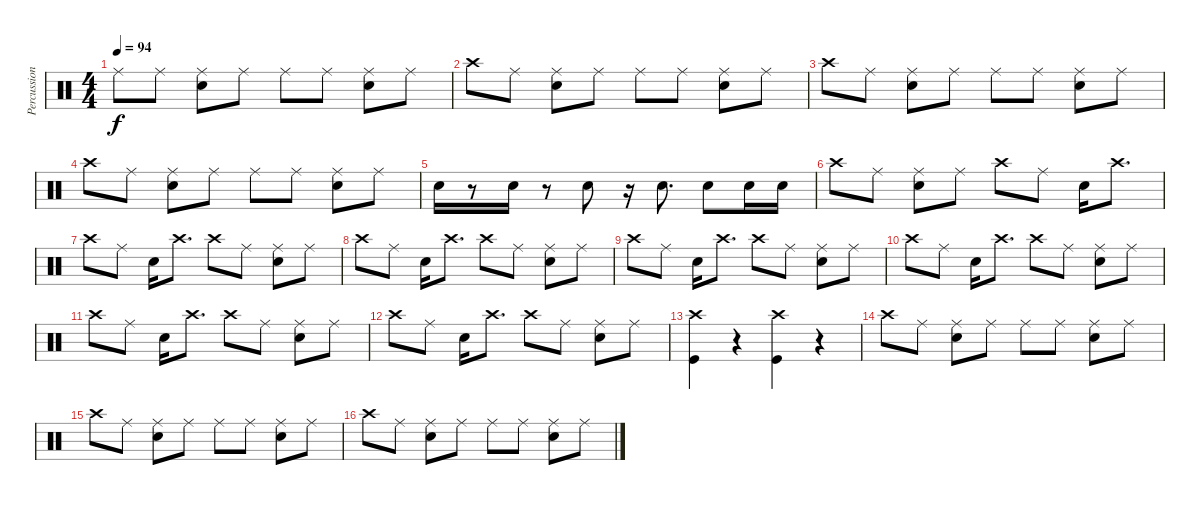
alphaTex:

\track ("Percussion" "Percussion") {instrument percussion}
\staff {score}
\articulation defaults
\ts (4 4)
\tempo 94
\clef neutral
\ks c "Ride (middle)".8{dy f} "Ride (middle)".8
("Ride (middle)" "Snare (hit) 2").8 "Ride (middle)".8 "Ride (middle)".8 "Ride (middle)".8 ("Ride (middle)" "Snare (hit) 2").8 "Ride (middle)".8 |
"Crash high (hit)".8 "Ride (middle)".8 ("Ride (middle)" "Snare (hit) 2").8 "Ride (middle)".8 "Ride (middle)".8 "Ride (middle)".8 ("Ride (middle)" "Snare (hit) 2").8 "Ride (middle)".8 |
"Crash high (hit)".8 "Ride (middle)".8 ("Ride (middle)" "Snare (hit) 2").8 "Ride (middle)".8 "Ride (middle)".8 "Ride (middle)".8 ("Ride (middle)" "Snare (hit) 2").8 "Ride (middle)".8 |
"Crash high (hit)".8 "Ride (middle)".8 ("Ride (middle)" "Snare (hit) 2").8 "Ride (middle)".8 "Ride (middle)".8 "Ride (middle)".8 ("Ride (middle)" "Snare (hit) 2").8 "Ride (middle)".8 |
"Snare (hit) 2".16 r.8 "Snare (hit) 2".16 r.8 "Snare (hit) 2".8 r.16 "Snare (hit) 2".8{d} "Snare (hit) 2".8 "Snare (hit) 2".16 "Snare (hit) 2".16 |
"Crash high (hit)".8 "Ride (middle)".8 ("Ride (middle)" "Snare (hit) 2").8 "Ride (middle)".8 "Crash high (hit)".8 "Ride (middle)".8 "Snare (hit) 2".16 "Crash high (hit)".8{d} |
"Crash high (hit)".8 "Ride (middle)".8 "Snare (hit) 2".16 "Crash high (hit)".8{d} "Crash high (hit)".8 "Ride (middle)".8 ("Ride (middle)" "Snare (hit) 2").8 "Ride (middle)".8 |
"Crash high (hit)".8 "Ride (middle)".8 "Snare (hit) 2".16 "Crash high (hit)".8{d} "Crash high (hit)".8 "Ride (middle)".8 ("Ride (middle)" "Snare (hit) 2").8 "Ride (middle)".8 |
"Crash high (hit)".8 "Ride (middle)".8 "Snare (hit) 2".16 "Crash high (hit)".8{d} "Crash high (hit)".8 "Ride (middle)".8 ("Ride (middle)" "Snare (hit) 2").8 "Ride (middle)".8 |
"Crash high (hit)".8 "Ride (middle)".8 "Snare (hit) 2".16 "Crash high (hit)".8{d} "Crash high (hit)".8 "Ride (middle)".8 ("Ride (middle)" "Snare (hit) 2").8 "Ride (middle)".8 |
"Crash high (hit)".8 "Ride (middle)".8 "Snare (hit) 2".16 "Crash high (hit)".8{d} "Crash high (hit)".8 "Ride (middle)".8 ("Ride (middle)" "Snare (hit) 2").8 "Ride (middle)".8 |
"Crash high (hit)".8 "Ride (middle)".8 "Snare (hit) 2".16 "Crash high (hit)".8{d} "Crash high (hit)".8 "Ride (middle)".8 ("Ride (middle)" "Snare (hit) 2").8 "Ride (middle)".8 |
("Crash high (hit)" "Kick (hit)").4 r.4 ("Crash high (hit)" "Kick (hit)").4 r.4 |
"Crash high (hit)".8 "Ride (middle)".8 ("Ride (middle)" "Snare (hit) 2").8 "Ride (middle)".8 "Ride (middle)".8 "Ride (middle)".8 ("Ride (middle)" "Snare (hit) 2").8 "Ride (middle)".8 |
"Crash high (hit)".8 "Ride (middle)".8 ("Ride (middle)" "Snare (hit) 2").8 "Ride (middle)".8 "Ride (middle)".8 "Ride (middle)".8 ("Ride (middle)" "Snare (hit) 2").8 "Ride (middle)".8 |
"Crash high (hit)".8 "Ride (middle)".8 ("Ride (middle)" "Snare (hit) 2").8 "Ride (middle)".8 "Ride (middle)".8 "Ride (middle)".8 ("Ride (middle)" "Snare (hit) 2").8 "Ride (middle)".8
